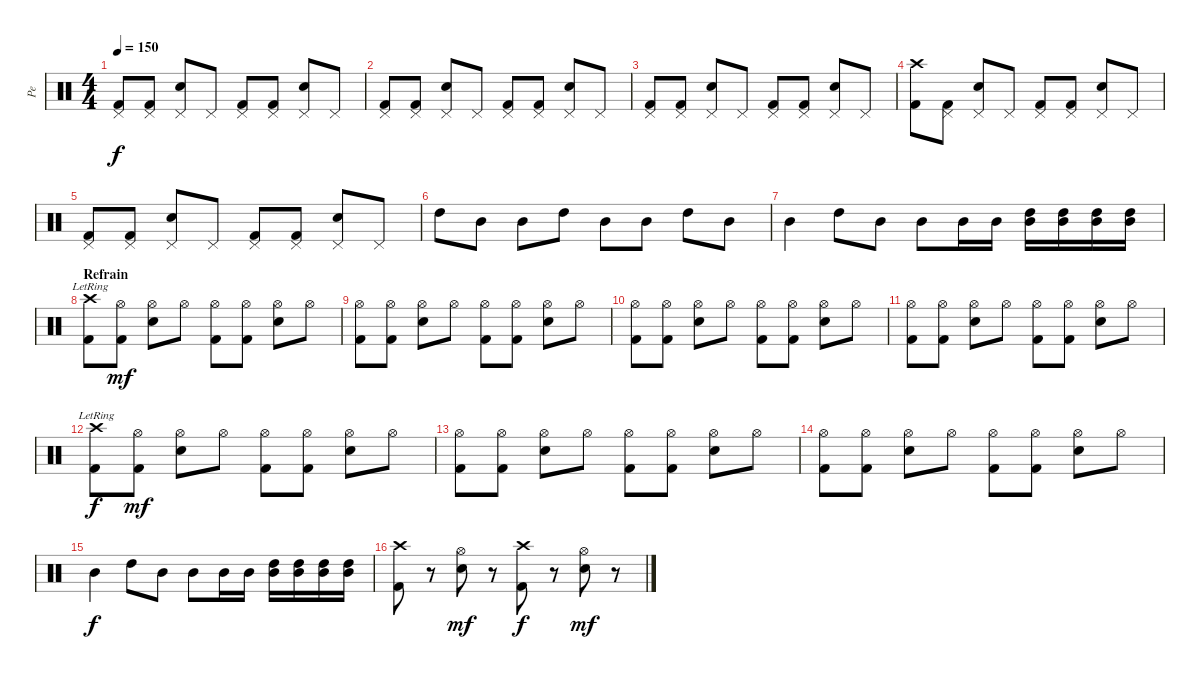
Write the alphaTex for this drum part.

\track ("Pe" "Pe") {instrument percussion}
\staff {score}
\articulation defaults
\ts (4 4)
\tempo 150
\clef neutral
\ks c
("Pedal Hi-Hat (hit)" "Kick (hit) 2").8{dy f} ("Pedal Hi-Hat (hit)" "Kick (hit) 2").8 ("Pedal Hi-Hat (hit)" "Snare (hit) 2").8 "Pedal Hi-Hat (hit)".8 ("Pedal Hi-Hat (hit)" "Kick (hit) 2").8 ("Pedal Hi-Hat (hit)" "Kick (hit) 2").8 ("Pedal Hi-Hat (hit)" "Snare (hit) 2").8 "Pedal Hi-Hat (hit)".8 |
("Pedal Hi-Hat (hit)" "Kick (hit) 2").8 ("Pedal Hi-Hat (hit)" "Kick (hit) 2").8 ("Pedal Hi-Hat (hit)" "Snare (hit) 2").8 "Pedal Hi-Hat (hit)".8 ("Pedal Hi-Hat (hit)" "Kick (hit) 2").8 ("Pedal Hi-Hat (hit)" "Kick (hit) 2").8 ("Pedal Hi-Hat (hit)" "Snare (hit) 2").8 "Pedal Hi-Hat (hit)".8 |
("Pedal Hi-Hat (hit)" "Kick (hit) 2").8 ("Pedal Hi-Hat (hit)" "Kick (hit) 2").8 ("Pedal Hi-Hat (hit)" "Snare (hit) 2").8 "Pedal Hi-Hat (hit)".8 ("Pedal Hi-Hat (hit)" "Kick (hit) 2").8 ("Pedal Hi-Hat (hit)" "Kick (hit) 2").8 ("Pedal Hi-Hat (hit)" "Snare (hit) 2").8 "Pedal Hi-Hat (hit)".8 |
("Crash high (hit)" "Kick (hit) 2").8 ("Pedal Hi-Hat (hit)" "Kick (hit) 2").8 ("Pedal Hi-Hat (hit)" "Snare (hit) 2").8 "Pedal Hi-Hat (hit)".8 ("Pedal Hi-Hat (hit)" "Kick (hit) 2").8 ("Pedal Hi-Hat (hit)" "Kick (hit) 2").8 ("Pedal Hi-Hat (hit)" "Snare (hit) 2").8 "Pedal Hi-Hat (hit)".8 |
("Pedal Hi-Hat (hit)" "Kick (hit) 2").8 ("Pedal Hi-Hat (hit)" "Kick (hit) 2").8 ("Pedal Hi-Hat (hit)" "Snare (hit) 2").8 "Pedal Hi-Hat (hit)".8 ("Pedal Hi-Hat (hit)" "Kick (hit) 2").8 ("Pedal Hi-Hat (hit)" "Kick (hit) 2").8 ("Pedal Hi-Hat (hit)" "Snare (hit) 2").8 "Pedal Hi-Hat (hit)".8 |
"High Tom (hit)".8 "Mid Tom (hit)".8 "Mid Tom (hit)".8 "High Tom (hit)".8 "Mid Tom (hit)".8 "Mid Tom (hit)".8 "High Tom (hit)".8 "Mid Tom (hit)".8 |
"Mid Tom (hit)".4 "High Tom (hit)".8 "Mid Tom (hit)".8 "Mid Tom (hit)".8 "Mid Tom (hit)".16 "Mid Tom (hit)".16 ("Mid Tom (hit)" "High Tom (hit)").16 ("Mid Tom (hit)" "High Tom (hit)").16 ("Mid Tom (hit)" "High Tom (hit)").16 ("Mid Tom (hit)" "High Tom (hit)").16 |
\section ("" "Refrain")
("Crash high (hit)"{lr} "Kick (hit) 2").8 ("Hi-Hat (open)" "Kick (hit) 2").8{dy mf} ("Hi-Hat (open)" "Snare (hit) 2").8 "Hi-Hat (open)".8 ("Hi-Hat (open)" "Kick (hit) 2").8 ("Hi-Hat (open)" "Kick (hit) 2").8 ("Hi-Hat (open)" "Snare (hit) 2").8 "Hi-Hat (open)".8 |
("Hi-Hat (open)" "Kick (hit) 2").8 ("Hi-Hat (open)" "Kick (hit) 2").8 ("Hi-Hat (open)" "Snare (hit) 2").8 "Hi-Hat (open)".8 ("Hi-Hat (open)" "Kick (hit) 2").8 ("Hi-Hat (open)" "Kick (hit) 2").8 ("Hi-Hat (open)" "Snare (hit) 2").8 "Hi-Hat (open)".8 |
("Hi-Hat (open)" "Kick (hit) 2").8 ("Hi-Hat (open)" "Kick (hit) 2").8 ("Hi-Hat (open)" "Snare (hit) 2").8 "Hi-Hat (open)".8 ("Hi-Hat (open)" "Kick (hit) 2").8 ("Hi-Hat (open)" "Kick (hit) 2").8 ("Hi-Hat (open)" "Snare (hit) 2").8 "Hi-Hat (open)".8 |
("Hi-Hat (open)" "Kick (hit) 2").8 ("Hi-Hat (open)" "Kick (hit) 2").8 ("Hi-Hat (open)" "Snare (hit) 2").8 "Hi-Hat (open)".8 ("Hi-Hat (open)" "Kick (hit) 2").8 ("Hi-Hat (open)" "Kick (hit) 2").8 ("Hi-Hat (open)" "Snare (hit) 2").8 "Hi-Hat (open)".8 |
("Crash high (hit)"{lr} "Kick (hit) 2").8{dy f} ("Hi-Hat (open)" "Kick (hit) 2").8{dy mf} ("Hi-Hat (open)" "Snare (hit) 2").8 "Hi-Hat (open)".8 ("Hi-Hat (open)" "Kick (hit) 2").8 ("Hi-Hat (open)" "Kick (hit) 2").8 ("Hi-Hat (open)" "Snare (hit) 2").8 "Hi-Hat (open)".8 |
("Hi-Hat (open)" "Kick (hit) 2").8 ("Hi-Hat (open)" "Kick (hit) 2").8 ("Hi-Hat (open)" "Snare (hit) 2").8 "Hi-Hat (open)".8 ("Hi-Hat (open)" "Kick (hit) 2").8 ("Hi-Hat (open)" "Kick (hit) 2").8 ("Hi-Hat (open)" "Snare (hit) 2").8 "Hi-Hat (open)".8 |
("Hi-Hat (open)" "Kick (hit) 2").8 ("Hi-Hat (open)" "Kick (hit) 2").8 ("Hi-Hat (open)" "Snare (hit) 2").8 "Hi-Hat (open)".8 ("Hi-Hat (open)" "Kick (hit) 2").8 ("Hi-Hat (open)" "Kick (hit) 2").8 ("Hi-Hat (open)" "Snare (hit) 2").8 "Hi-Hat (open)".8 |
"Mid Tom (hit)".4{dy f} "High Tom (hit)".8 "Mid Tom (hit)".8 "Mid Tom (hit)".8 "Mid Tom (hit)".16 "Mid Tom (hit)".16 ("Mid Tom (hit)" "High Tom (hit)").16 ("Mid Tom (hit)" "High Tom (hit)").16 ("Mid Tom (hit)" "High Tom (hit)").16 ("Mid Tom (hit)" "High Tom (hit)").16 |
("Crash high (hit)" "Kick (hit) 2").8 r.8 ("Hi-Hat (open)" "Snare (hit) 2").8{dy mf} r.8 ("Crash high (hit)" "Kick (hit) 2").8{dy f} r.8 ("Hi-Hat (open)" "Snare (hit) 2").8{dy mf} r.8
